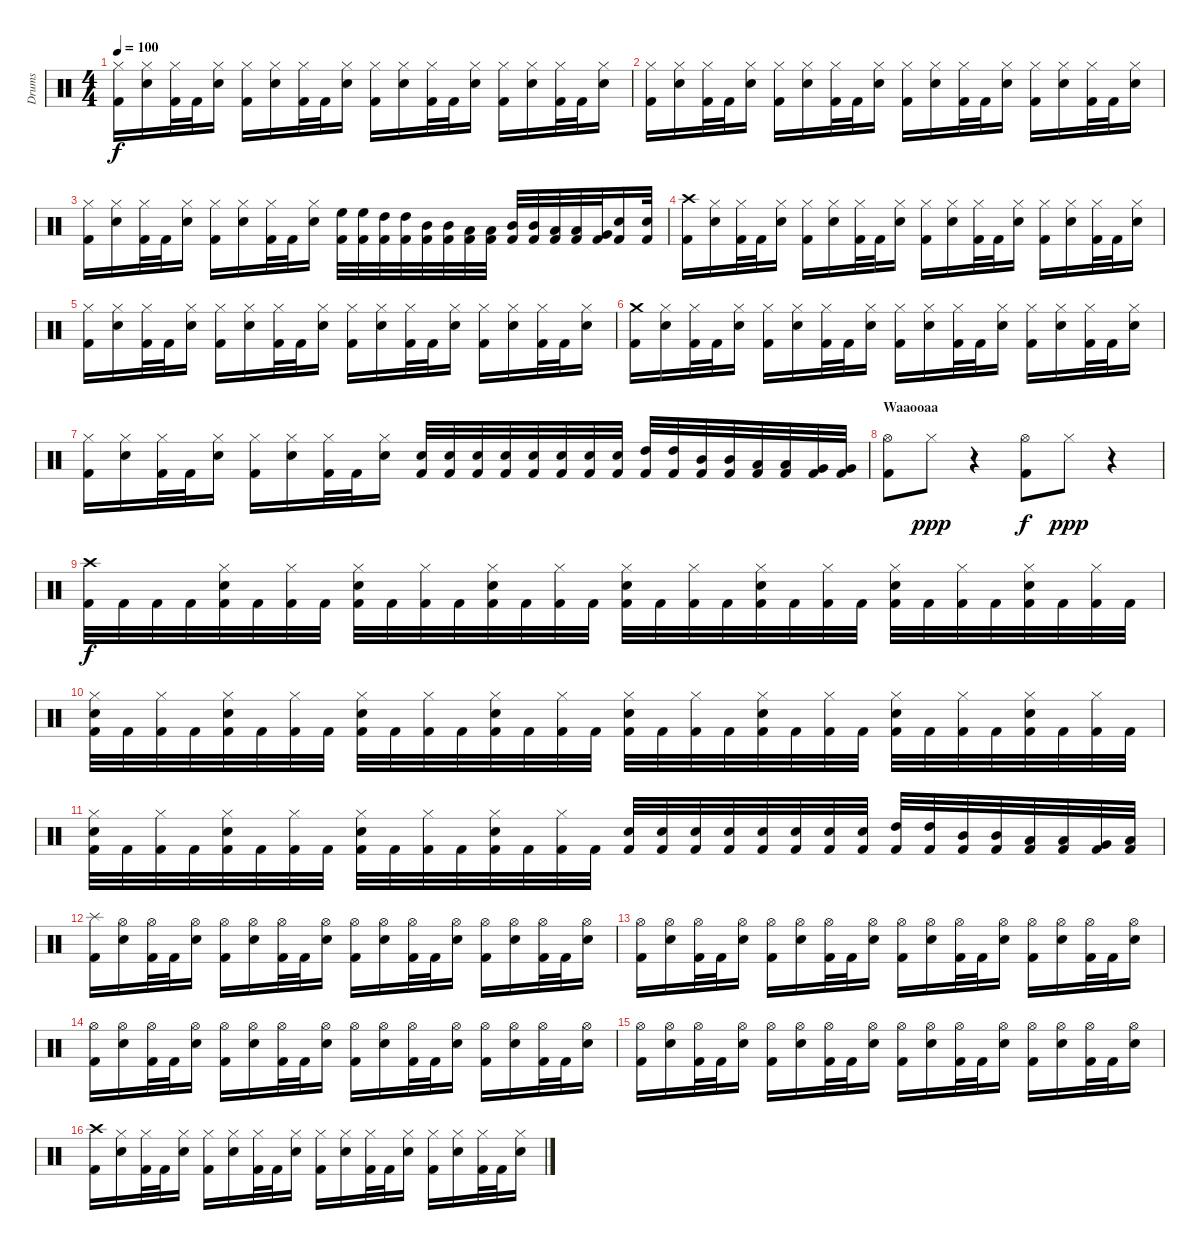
\track ("Drums" "Drums") {instrument percussion}
\staff {score}
\articulation defaults
\ts (4 4)
\tempo 100
\clef neutral
\ks c
("Kick (hit) 2" "Hi-Hat (closed)").16{dy f} ("Electric Snare (hit)" "Hi-Hat (closed)").16 ("Kick (hit) 2" "Hi-Hat (closed)").32 "Kick (hit) 2".32 ("Electric Snare (hit)" "Hi-Hat (closed)").16 ("Kick (hit) 2" "Hi-Hat (closed)").16 ("Electric Snare (hit)" "Hi-Hat (closed)").16 ("Kick (hit) 2" "Hi-Hat (closed)").32 "Kick (hit) 2".32 ("Electric Snare (hit)" "Hi-Hat (closed)").16 ("Kick (hit) 2" "Hi-Hat (closed)").16 ("Electric Snare (hit)" "Hi-Hat (closed)").16 ("Kick (hit) 2" "Hi-Hat (closed)").32 "Kick (hit) 2".32 ("Electric Snare (hit)" "Hi-Hat (closed)").16 ("Kick (hit) 2" "Hi-Hat (closed)").16 ("Electric Snare (hit)" "Hi-Hat (closed)").16 ("Kick (hit) 2" "Hi-Hat (closed)").32 "Kick (hit) 2".32 ("Electric Snare (hit)" "Hi-Hat (closed)").16 |
("Kick (hit) 2" "Hi-Hat (closed)").16 ("Electric Snare (hit)" "Hi-Hat (closed)").16 ("Kick (hit) 2" "Hi-Hat (closed)").32 "Kick (hit) 2".32 ("Electric Snare (hit)" "Hi-Hat (closed)").16 ("Kick (hit) 2" "Hi-Hat (closed)").16 ("Electric Snare (hit)" "Hi-Hat (closed)").16 ("Kick (hit) 2" "Hi-Hat (closed)").32 "Kick (hit) 2".32 ("Electric Snare (hit)" "Hi-Hat (closed)").16 ("Kick (hit) 2" "Hi-Hat (closed)").16 ("Electric Snare (hit)" "Hi-Hat (closed)").16 ("Kick (hit) 2" "Hi-Hat (closed)").32 "Kick (hit) 2".32 ("Electric Snare (hit)" "Hi-Hat (closed)").16 ("Kick (hit) 2" "Hi-Hat (closed)").16 ("Electric Snare (hit)" "Hi-Hat (closed)").16 ("Kick (hit) 2" "Hi-Hat (closed)").32 "Kick (hit) 2".32 ("Electric Snare (hit)" "Hi-Hat (closed)").16 |
("Kick (hit) 2" "Hi-Hat (closed)").16 ("Electric Snare (hit)" "Hi-Hat (closed)").16 ("Kick (hit) 2" "Hi-Hat (closed)").32 "Kick (hit) 2".32 ("Electric Snare (hit)" "Hi-Hat (closed)").16 ("Kick (hit) 2" "Hi-Hat (closed)").16 ("Electric Snare (hit)" "Hi-Hat (closed)").16 ("Kick (hit) 2" "Hi-Hat (closed)").32 "Kick (hit) 2".32 ("Electric Snare (hit)" "Hi-Hat (closed)").16 ("Kick (hit) 2" "High Floor Tom (hit)").32 ("Kick (hit) 2" "High Floor Tom (hit)").32 ("Kick (hit) 2" "High Tom (hit)").32 ("Kick (hit) 2" "High Tom (hit)").32 ("Kick (hit) 2" "Mid Tom (hit)").32 ("Kick (hit) 2" "Mid Tom (hit)").32 ("Kick (hit) 2" "Low Tom (hit)").32 ("Kick (hit) 2" "Low Tom (hit)").32 ("Kick (hit) 2" "Mid Tom (hit)").32 ("Kick (hit) 2" "Mid Tom (hit)").32 ("Kick (hit) 2" "Low Tom (hit)").32 ("Kick (hit) 2" "Low Tom (hit)").32 ("Kick (hit) 2" "Very Low Tom (hit)").32 ("Kick (hit) 2" "Electric Snare (hit)").16 ("Kick (hit) 2" "Electric Snare (hit)").32 |
("Kick (hit) 2" "Crash high (hit)").16 ("Electric Snare (hit)" "Hi-Hat (closed)").16 ("Kick (hit) 2" "Hi-Hat (closed)").32 "Kick (hit) 2".32 ("Electric Snare (hit)" "Hi-Hat (closed)").16 ("Kick (hit) 2" "Hi-Hat (closed)").16 ("Electric Snare (hit)" "Hi-Hat (closed)").16 ("Kick (hit) 2" "Hi-Hat (closed)").32 "Kick (hit) 2".32 ("Electric Snare (hit)" "Hi-Hat (closed)").16 ("Kick (hit) 2" "Hi-Hat (closed)").16 ("Electric Snare (hit)" "Hi-Hat (closed)").16 ("Kick (hit) 2" "Hi-Hat (closed)").32 "Kick (hit) 2".32 ("Electric Snare (hit)" "Hi-Hat (closed)").16 ("Kick (hit) 2" "Hi-Hat (closed)").16 ("Electric Snare (hit)" "Hi-Hat (closed)").16 ("Kick (hit) 2" "Hi-Hat (closed)").32 "Kick (hit) 2".32 ("Electric Snare (hit)" "Hi-Hat (closed)").16 |
("Kick (hit) 2" "Hi-Hat (closed)").16 ("Electric Snare (hit)" "Hi-Hat (closed)").16 ("Kick (hit) 2" "Hi-Hat (closed)").32 "Kick (hit) 2".32 ("Electric Snare (hit)" "Hi-Hat (closed)").16 ("Kick (hit) 2" "Hi-Hat (closed)").16 ("Electric Snare (hit)" "Hi-Hat (closed)").16 ("Kick (hit) 2" "Hi-Hat (closed)").32 "Kick (hit) 2".32 ("Electric Snare (hit)" "Hi-Hat (closed)").16 ("Kick (hit) 2" "Hi-Hat (closed)").16 ("Electric Snare (hit)" "Hi-Hat (closed)").16 ("Kick (hit) 2" "Hi-Hat (closed)").32 "Kick (hit) 2".32 ("Electric Snare (hit)" "Hi-Hat (closed)").16 ("Kick (hit) 2" "Hi-Hat (closed)").16 ("Electric Snare (hit)" "Hi-Hat (closed)").16 ("Kick (hit) 2" "Hi-Hat (closed)").32 "Kick (hit) 2".32 ("Electric Snare (hit)" "Hi-Hat (closed)").16 |
("Kick (hit) 2" "Crash medium (hit)").16 ("Electric Snare (hit)" "Hi-Hat (closed)").16 ("Kick (hit) 2" "Hi-Hat (closed)").32 "Kick (hit) 2".32 ("Electric Snare (hit)" "Hi-Hat (closed)").16 ("Kick (hit) 2" "Hi-Hat (closed)").16 ("Electric Snare (hit)" "Hi-Hat (closed)").16 ("Kick (hit) 2" "Hi-Hat (closed)").32 "Kick (hit) 2".32 ("Electric Snare (hit)" "Hi-Hat (closed)").16 ("Kick (hit) 2" "Hi-Hat (closed)").16 ("Electric Snare (hit)" "Hi-Hat (closed)").16 ("Kick (hit) 2" "Hi-Hat (closed)").32 "Kick (hit) 2".32 ("Electric Snare (hit)" "Hi-Hat (closed)").16 ("Kick (hit) 2" "Hi-Hat (closed)").16 ("Electric Snare (hit)" "Hi-Hat (closed)").16 ("Kick (hit) 2" "Hi-Hat (closed)").32 "Kick (hit) 2".32 ("Electric Snare (hit)" "Hi-Hat (closed)").16 |
("Kick (hit) 2" "Hi-Hat (closed)").16 ("Electric Snare (hit)" "Hi-Hat (closed)").16 ("Kick (hit) 2" "Hi-Hat (closed)").32 "Kick (hit) 2".32 ("Electric Snare (hit)" "Hi-Hat (closed)").16 ("Kick (hit) 2" "Hi-Hat (closed)").16 ("Electric Snare (hit)" "Hi-Hat (closed)").16 ("Kick (hit) 2" "Hi-Hat (closed)").32 "Kick (hit) 2".32 ("Electric Snare (hit)" "Hi-Hat (closed)").16 ("Kick (hit) 2" "Electric Snare (hit)").32 ("Kick (hit) 2" "Electric Snare (hit)").32 ("Kick (hit) 2" "Electric Snare (hit)").32 ("Kick (hit) 2" "Electric Snare (hit)").32 ("Kick (hit) 2" "Electric Snare (hit)").32 ("Kick (hit) 2" "Electric Snare (hit)").32 ("Kick (hit) 2" "Electric Snare (hit)").32 ("Kick (hit) 2" "Electric Snare (hit)").32 ("Kick (hit) 2" "High Tom (hit)").32 ("Kick (hit) 2" "High Tom (hit)").32 ("Kick (hit) 2" "Mid Tom (hit)").32 ("Kick (hit) 2" "Mid Tom (hit)").32 ("Kick (hit) 2" "Low Tom (hit)").32 ("Kick (hit) 2" "Low Tom (hit)").32 ("Kick (hit) 2" "Very Low Tom (hit)").32 ("Kick (hit) 2" "Very Low Tom (hit)").32 |
\section ("" "Waaooaa")
("Kick (hit) 2" "Hi-Hat (open)").8 "Hi-Hat (closed)".8{dy ppp} r.4 ("Kick (hit) 2" "Hi-Hat (open)").8{dy f} "Hi-Hat (closed)".8{dy ppp} r.4 |
("Kick (hit) 2" "Crash high (hit)").32{dy f} "Kick (hit) 2".32 "Kick (hit) 2".32 "Kick (hit) 2".32 ("Kick (hit) 2" "Electric Snare (hit)" "Hi-Hat (closed)").32 "Kick (hit) 2".32 ("Kick (hit) 2" "Hi-Hat (closed)").32 "Kick (hit) 2".32 ("Kick (hit) 2" "Electric Snare (hit)" "Hi-Hat (closed)").32 "Kick (hit) 2".32 ("Kick (hit) 2" "Hi-Hat (closed)").32 "Kick (hit) 2".32 ("Kick (hit) 2" "Electric Snare (hit)" "Hi-Hat (closed)").32 "Kick (hit) 2".32 ("Kick (hit) 2" "Hi-Hat (closed)").32 "Kick (hit) 2".32 ("Kick (hit) 2" "Electric Snare (hit)" "Hi-Hat (closed)").32 "Kick (hit) 2".32 ("Kick (hit) 2" "Hi-Hat (closed)").32 "Kick (hit) 2".32 ("Kick (hit) 2" "Electric Snare (hit)" "Hi-Hat (closed)").32 "Kick (hit) 2".32 ("Kick (hit) 2" "Hi-Hat (closed)").32 "Kick (hit) 2".32 ("Kick (hit) 2" "Electric Snare (hit)" "Hi-Hat (closed)").32 "Kick (hit) 2".32 ("Kick (hit) 2" "Hi-Hat (closed)").32 "Kick (hit) 2".32 ("Kick (hit) 2" "Electric Snare (hit)" "Hi-Hat (closed)").32 "Kick (hit) 2".32 ("Kick (hit) 2" "Hi-Hat (closed)").32 "Kick (hit) 2".32 |
("Kick (hit) 2" "Electric Snare (hit)" "Hi-Hat (closed)").32 "Kick (hit) 2".32 ("Kick (hit) 2" "Hi-Hat (closed)").32 "Kick (hit) 2".32 ("Kick (hit) 2" "Electric Snare (hit)" "Hi-Hat (closed)").32 "Kick (hit) 2".32 ("Kick (hit) 2" "Hi-Hat (closed)").32 "Kick (hit) 2".32 ("Kick (hit) 2" "Electric Snare (hit)" "Hi-Hat (closed)").32 "Kick (hit) 2".32 ("Kick (hit) 2" "Hi-Hat (closed)").32 "Kick (hit) 2".32 ("Kick (hit) 2" "Electric Snare (hit)" "Hi-Hat (closed)").32 "Kick (hit) 2".32 ("Kick (hit) 2" "Hi-Hat (closed)").32 "Kick (hit) 2".32 ("Kick (hit) 2" "Electric Snare (hit)" "Hi-Hat (closed)").32 "Kick (hit) 2".32 ("Kick (hit) 2" "Hi-Hat (closed)").32 "Kick (hit) 2".32 ("Kick (hit) 2" "Electric Snare (hit)" "Hi-Hat (closed)").32 "Kick (hit) 2".32 ("Kick (hit) 2" "Hi-Hat (closed)").32 "Kick (hit) 2".32 ("Kick (hit) 2" "Electric Snare (hit)" "Hi-Hat (closed)").32 "Kick (hit) 2".32 ("Kick (hit) 2" "Hi-Hat (closed)").32 "Kick (hit) 2".32 ("Kick (hit) 2" "Electric Snare (hit)" "Hi-Hat (closed)").32 "Kick (hit) 2".32 ("Kick (hit) 2" "Hi-Hat (closed)").32 "Kick (hit) 2".32 |
("Kick (hit) 2" "Electric Snare (hit)" "Hi-Hat (closed)").32 "Kick (hit) 2".32 ("Kick (hit) 2" "Hi-Hat (closed)").32 "Kick (hit) 2".32 ("Kick (hit) 2" "Electric Snare (hit)" "Hi-Hat (closed)").32 "Kick (hit) 2".32 ("Kick (hit) 2" "Hi-Hat (closed)").32 "Kick (hit) 2".32 ("Kick (hit) 2" "Electric Snare (hit)" "Hi-Hat (closed)").32 "Kick (hit) 2".32 ("Kick (hit) 2" "Hi-Hat (closed)").32 "Kick (hit) 2".32 ("Kick (hit) 2" "Electric Snare (hit)" "Hi-Hat (closed)").32 "Kick (hit) 2".32 ("Kick (hit) 2" "Hi-Hat (closed)").32 "Kick (hit) 2".32 ("Kick (hit) 2" "Electric Snare (hit)").32 ("Kick (hit) 2" "Electric Snare (hit)").32 ("Kick (hit) 2" "Electric Snare (hit)").32 ("Kick (hit) 2" "Electric Snare (hit)").32 ("Kick (hit) 2" "Electric Snare (hit)").32 ("Kick (hit) 2" "Electric Snare (hit)").32 ("Kick (hit) 2" "Electric Snare (hit)").32 ("Kick (hit) 2" "Electric Snare (hit)").32 ("Kick (hit) 2" "High Tom (hit)").32 ("Kick (hit) 2" "High Tom (hit)").32 ("Kick (hit) 2" "Mid Tom (hit)").32 ("Kick (hit) 2" "Mid Tom (hit)").32 ("Kick (hit) 2" "Low Tom (hit)").32 ("Kick (hit) 2" "Low Tom (hit)").32 ("Kick (hit) 2" "Very Low Tom (hit)").32 ("Kick (hit) 2" "Low Floor Tom (hit)").32 |
\section ("" "")
("Kick (hit) 2" "Splash (hit)").16 ("Electric Snare (hit)" "Hi-Hat (open)").16 ("Kick (hit) 2" "Hi-Hat (open)").32 "Kick (hit) 2".32 ("Electric Snare (hit)" "Hi-Hat (open)").16 ("Kick (hit) 2" "Hi-Hat (open)").16 ("Electric Snare (hit)" "Hi-Hat (open)").16 ("Kick (hit) 2" "Hi-Hat (open)").32 "Kick (hit) 2".32 ("Electric Snare (hit)" "Hi-Hat (open)").16 ("Kick (hit) 2" "Hi-Hat (open)").16 ("Electric Snare (hit)" "Hi-Hat (open)").16 ("Kick (hit) 2" "Hi-Hat (open)").32 "Kick (hit) 2".32 ("Electric Snare (hit)" "Hi-Hat (open)").16 ("Kick (hit) 2" "Hi-Hat (open)").16 ("Electric Snare (hit)" "Hi-Hat (open)").16 ("Kick (hit) 2" "Hi-Hat (open)").32 "Kick (hit) 2".32 ("Electric Snare (hit)" "Hi-Hat (open)").16 |
("Kick (hit) 2" "Hi-Hat (open)").16 ("Electric Snare (hit)" "Hi-Hat (open)").16 ("Kick (hit) 2" "Hi-Hat (open)").32 "Kick (hit) 2".32 ("Electric Snare (hit)" "Hi-Hat (open)").16 ("Kick (hit) 2" "Hi-Hat (open)").16 ("Electric Snare (hit)" "Hi-Hat (open)").16 ("Kick (hit) 2" "Hi-Hat (open)").32 "Kick (hit) 2".32 ("Electric Snare (hit)" "Hi-Hat (open)").16 ("Kick (hit) 2" "Hi-Hat (open)").16 ("Electric Snare (hit)" "Hi-Hat (open)").16 ("Kick (hit) 2" "Hi-Hat (open)").32 "Kick (hit) 2".32 ("Electric Snare (hit)" "Hi-Hat (open)").16 ("Kick (hit) 2" "Hi-Hat (open)").16 ("Electric Snare (hit)" "Hi-Hat (open)").16 ("Kick (hit) 2" "Hi-Hat (open)").32 "Kick (hit) 2".32 ("Electric Snare (hit)" "Hi-Hat (open)").16 |
("Kick (hit) 2" "Hi-Hat (open)").16 ("Electric Snare (hit)" "Hi-Hat (open)").16 ("Kick (hit) 2" "Hi-Hat (open)").32 "Kick (hit) 2".32 ("Electric Snare (hit)" "Hi-Hat (open)").16 ("Kick (hit) 2" "Hi-Hat (open)").16 ("Electric Snare (hit)" "Hi-Hat (open)").16 ("Kick (hit) 2" "Hi-Hat (open)").32 "Kick (hit) 2".32 ("Electric Snare (hit)" "Hi-Hat (open)").16 ("Kick (hit) 2" "Hi-Hat (open)").16 ("Electric Snare (hit)" "Hi-Hat (open)").16 ("Kick (hit) 2" "Hi-Hat (open)").32 "Kick (hit) 2".32 ("Electric Snare (hit)" "Hi-Hat (open)").16 ("Kick (hit) 2" "Hi-Hat (open)").16 ("Electric Snare (hit)" "Hi-Hat (open)").16 ("Kick (hit) 2" "Hi-Hat (open)").32 "Kick (hit) 2".32 ("Electric Snare (hit)" "Hi-Hat (open)").16 |
("Kick (hit) 2" "Hi-Hat (open)").16 ("Electric Snare (hit)" "Hi-Hat (open)").16 ("Kick (hit) 2" "Hi-Hat (open)").32 "Kick (hit) 2".32 ("Electric Snare (hit)" "Hi-Hat (open)").16 ("Kick (hit) 2" "Hi-Hat (open)").16 ("Electric Snare (hit)" "Hi-Hat (open)").16 ("Kick (hit) 2" "Hi-Hat (open)").32 "Kick (hit) 2".32 ("Electric Snare (hit)" "Hi-Hat (open)").16 ("Kick (hit) 2" "Hi-Hat (open)").16 ("Electric Snare (hit)" "Hi-Hat (open)").16 ("Kick (hit) 2" "Hi-Hat (open)").32 "Kick (hit) 2".32 ("Electric Snare (hit)" "Hi-Hat (open)").16 ("Kick (hit) 2" "Hi-Hat (open)").16 ("Electric Snare (hit)" "Hi-Hat (open)").16 ("Kick (hit) 2" "Hi-Hat (open)").32 "Kick (hit) 2".32 ("Electric Snare (hit)" "Hi-Hat (open)").16 |
\section ("" "")
("Kick (hit) 2" "Crash high (hit)").16 ("Electric Snare (hit)" "Hi-Hat (closed)").16 ("Kick (hit) 2" "Hi-Hat (closed)").32 "Kick (hit) 2".32 ("Electric Snare (hit)" "Hi-Hat (closed)").16 ("Kick (hit) 2" "Hi-Hat (closed)").16 ("Electric Snare (hit)" "Hi-Hat (closed)").16 ("Kick (hit) 2" "Hi-Hat (closed)").32 "Kick (hit) 2".32 ("Electric Snare (hit)" "Hi-Hat (closed)").16 ("Kick (hit) 2" "Hi-Hat (closed)").16 ("Electric Snare (hit)" "Hi-Hat (closed)").16 ("Kick (hit) 2" "Hi-Hat (closed)").32 "Kick (hit) 2".32 ("Electric Snare (hit)" "Hi-Hat (closed)").16 ("Kick (hit) 2" "Hi-Hat (closed)").16 ("Electric Snare (hit)" "Hi-Hat (closed)").16 ("Kick (hit) 2" "Hi-Hat (closed)").32 "Kick (hit) 2".32 ("Electric Snare (hit)" "Hi-Hat (closed)").16
